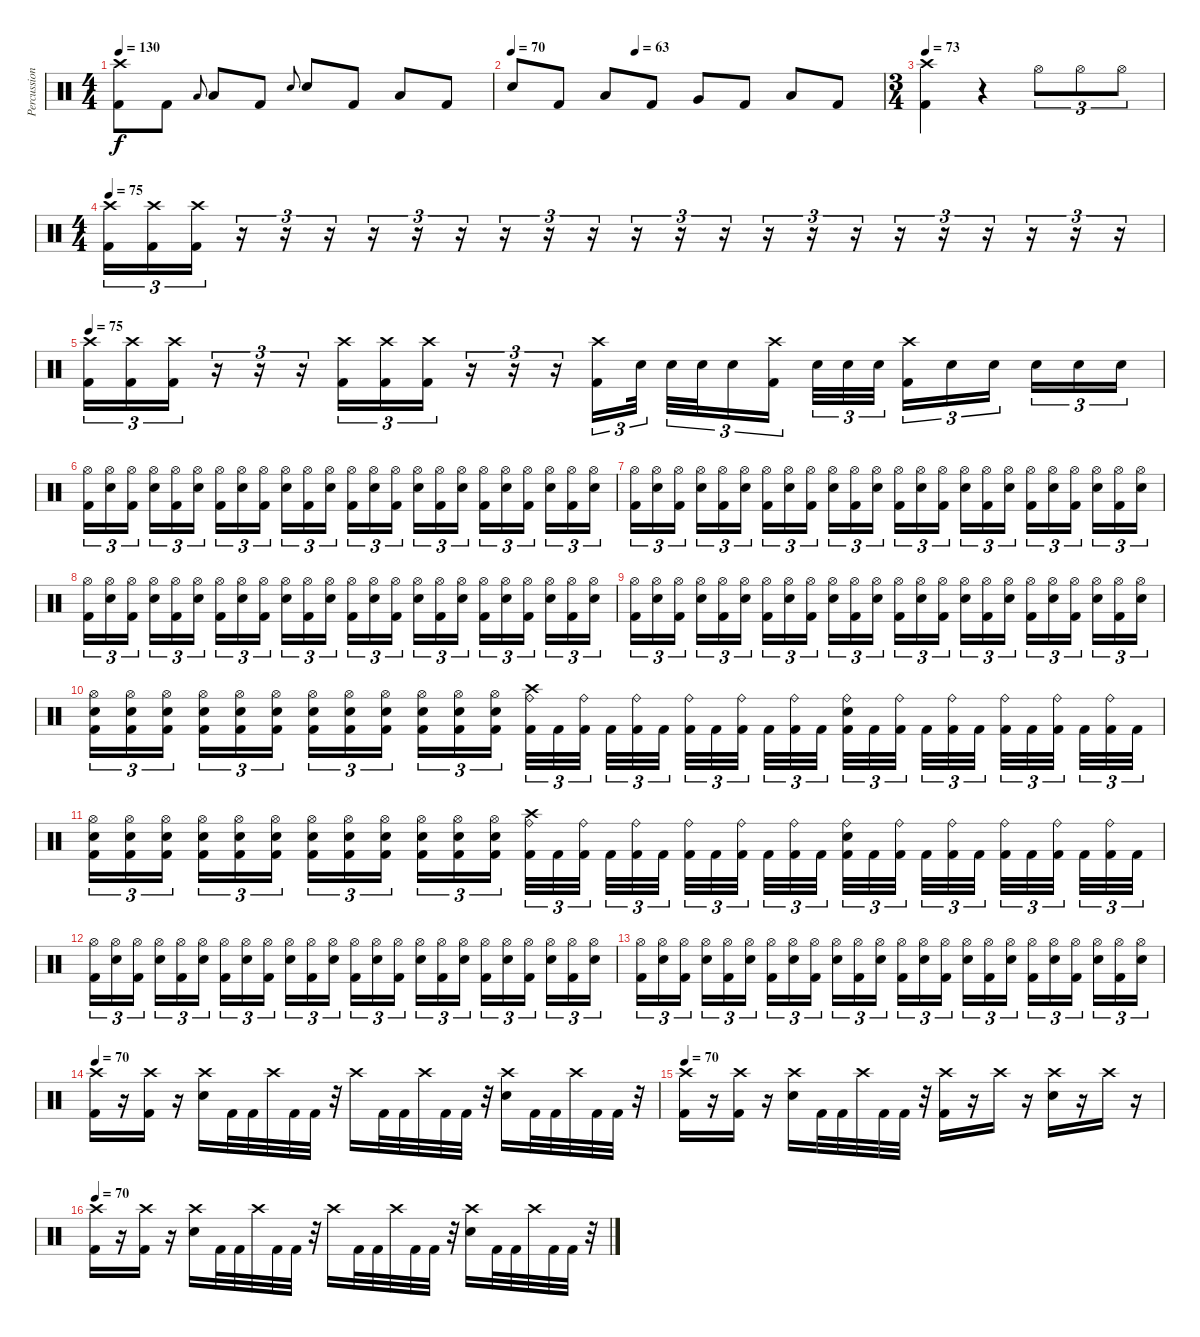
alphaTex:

\track ("Percussion" "Percussion") {instrument percussion}
\staff {score}
\articulation defaults
\ts (4 4)
\tempo 130
\clef neutral
\ks c
("Crash high (hit)" "Kick (hit) 2").8{dy f} "Kick (hit) 2".8 "Low Floor Tom (hit)".8{gr onbeat} "Low Floor Tom (hit)".8 "Kick (hit) 2".8 "Electric Snare (hit)".8{gr onbeat} "Electric Snare (hit)".8 "Kick (hit) 2".8 "Low Floor Tom (hit)".8 "Kick (hit) 2".8 |
\tempo 65
\tempo (63 0.3333333333333333)
\tempo (70)
"Electric Snare (hit)".8 "Kick (hit) 2".8 "Low Tom (hit)".8 "Kick (hit) 2".8 "Very Low Tom (hit)".8 "Kick (hit) 2".8 "Low Floor Tom (hit)".8 "Kick (hit) 2".8 |
\ts (3 4)
\tempo 73
("Crash high (hit)" "Kick (hit) 2").4 r.4 "Hi-Hat (open)".8{tu (3 2)} "Hi-Hat (open)".8{tu (3 2)} "Hi-Hat (open)".8{tu (3 2)} |
\ts (4 4)
\tempo 75
("Crash high (hit)" "Kick (hit) 2").16{tu (3 2)} ("Crash high (hit)" "Kick (hit) 2").16{tu (3 2)} ("Crash high (hit)" "Kick (hit) 2").16{tu (3 2)} r.16{tu (3 2)} r.16{tu (3 2)} r.16{tu (3 2)} r.16{tu (3 2)} r.16{tu (3 2)} r.16{tu (3 2)} r.16{tu (3 2)} r.16{tu (3 2)} r.16{tu (3 2)} r.16{tu (3 2)} r.16{tu (3 2)} r.16{tu (3 2)} r.16{tu (3 2)} r.16{tu (3 2)} r.16{tu (3 2)} r.16{tu (3 2)} r.16{tu (3 2)} r.16{tu (3 2)} r.16{tu (3 2)} r.16{tu (3 2)} r.16{tu (3 2)} |
\tempo 75
("Crash high (hit)" "Kick (hit) 2").16{tu (3 2)} ("Crash high (hit)" "Kick (hit) 2").16{tu (3 2)} ("Crash high (hit)" "Kick (hit) 2").16{tu (3 2)} r.16{tu (3 2)} r.16{tu (3 2)} r.16{tu (3 2)} ("Crash high (hit)" "Kick (hit) 2").16{tu (3 2)} ("Crash high (hit)" "Kick (hit) 2").16{tu (3 2)} ("Crash high (hit)" "Kick (hit) 2").16{tu (3 2)} r.16{tu (3 2)} r.16{tu (3 2)} r.16{tu (3 2)} ("Crash high (hit)" "Kick (hit) 2").16{tu (3 2)} "Electric Snare (hit)".32{tu (3 2) beam splitsecondary} "Electric Snare (hit)".32{tu (3 2)} "Electric Snare (hit)".32{tu (3 2)} "Electric Snare (hit)".16{tu (3 2)} ("Crash high (hit)" "Kick (hit) 2").16{tu (3 2) beam splitsecondary} "Electric Snare (hit)".32{tu (3 2)} "Electric Snare (hit)".32{tu (3 2)} "Electric Snare (hit)".32{tu (3 2)} ("Crash high (hit)" "Kick (hit) 2").16{tu (3 2)} "Electric Snare (hit)".16{tu (3 2)} "Electric Snare (hit)".16{tu (3 2) beam splitsecondary} "Electric Snare (hit)".16{tu (3 2)} "Electric Snare (hit)".16{tu (3 2)} "Electric Snare (hit)".16{tu (3 2)} |
("Hi-Hat (open)" "Kick (hit) 2").16{tu (3 2)} ("Hi-Hat (open)" "Electric Snare (hit)").16{tu (3 2)} ("Hi-Hat (open)" "Kick (hit) 2").16{tu (3 2) beam splitsecondary} ("Hi-Hat (open)" "Electric Snare (hit)").16{tu (3 2)} ("Hi-Hat (open)" "Kick (hit) 2").16{tu (3 2)} ("Hi-Hat (open)" "Electric Snare (hit)").16{tu (3 2)} ("Hi-Hat (open)" "Kick (hit) 2").16{tu (3 2)} ("Hi-Hat (open)" "Electric Snare (hit)").16{tu (3 2)} ("Hi-Hat (open)" "Kick (hit) 2").16{tu (3 2) beam splitsecondary} ("Hi-Hat (open)" "Electric Snare (hit)").16{tu (3 2)} ("Hi-Hat (open)" "Kick (hit) 2").16{tu (3 2)} ("Hi-Hat (open)" "Electric Snare (hit)").16{tu (3 2)} ("Hi-Hat (open)" "Kick (hit) 2").16{tu (3 2)} ("Hi-Hat (open)" "Electric Snare (hit)").16{tu (3 2)} ("Hi-Hat (open)" "Kick (hit) 2").16{tu (3 2) beam splitsecondary} ("Hi-Hat (open)" "Electric Snare (hit)").16{tu (3 2)} ("Hi-Hat (open)" "Kick (hit) 2").16{tu (3 2)} ("Hi-Hat (open)" "Electric Snare (hit)").16{tu (3 2)} ("Hi-Hat (open)" "Kick (hit) 2").16{tu (3 2)} ("Hi-Hat (open)" "Electric Snare (hit)").16{tu (3 2)} ("Hi-Hat (open)" "Kick (hit) 2").16{tu (3 2) beam splitsecondary} ("Hi-Hat (open)" "Electric Snare (hit)").16{tu (3 2)} ("Hi-Hat (open)" "Kick (hit) 2").16{tu (3 2)} ("Hi-Hat (open)" "Electric Snare (hit)").16{tu (3 2)} |
("Hi-Hat (open)" "Kick (hit) 2").16{tu (3 2)} ("Hi-Hat (open)" "Electric Snare (hit)").16{tu (3 2)} ("Hi-Hat (open)" "Kick (hit) 2").16{tu (3 2) beam splitsecondary} ("Hi-Hat (open)" "Electric Snare (hit)").16{tu (3 2)} ("Hi-Hat (open)" "Kick (hit) 2").16{tu (3 2)} ("Hi-Hat (open)" "Electric Snare (hit)").16{tu (3 2)} ("Hi-Hat (open)" "Kick (hit) 2").16{tu (3 2)} ("Hi-Hat (open)" "Electric Snare (hit)").16{tu (3 2)} ("Hi-Hat (open)" "Kick (hit) 2").16{tu (3 2) beam splitsecondary} ("Hi-Hat (open)" "Electric Snare (hit)").16{tu (3 2)} ("Hi-Hat (open)" "Kick (hit) 2").16{tu (3 2)} ("Hi-Hat (open)" "Electric Snare (hit)").16{tu (3 2)} ("Hi-Hat (open)" "Kick (hit) 2").16{tu (3 2)} ("Hi-Hat (open)" "Electric Snare (hit)").16{tu (3 2)} ("Hi-Hat (open)" "Kick (hit) 2").16{tu (3 2) beam splitsecondary} ("Hi-Hat (open)" "Electric Snare (hit)").16{tu (3 2)} ("Hi-Hat (open)" "Kick (hit) 2").16{tu (3 2)} ("Hi-Hat (open)" "Electric Snare (hit)").16{tu (3 2)} ("Hi-Hat (open)" "Kick (hit) 2").16{tu (3 2)} ("Hi-Hat (open)" "Electric Snare (hit)").16{tu (3 2)} ("Hi-Hat (open)" "Kick (hit) 2").16{tu (3 2) beam splitsecondary} ("Hi-Hat (open)" "Electric Snare (hit)").16{tu (3 2)} ("Hi-Hat (open)" "Kick (hit) 2").16{tu (3 2)} ("Hi-Hat (open)" "Electric Snare (hit)").16{tu (3 2)} |
("Hi-Hat (open)" "Kick (hit) 2").16{tu (3 2)} ("Hi-Hat (open)" "Electric Snare (hit)").16{tu (3 2)} ("Hi-Hat (open)" "Kick (hit) 2").16{tu (3 2) beam splitsecondary} ("Hi-Hat (open)" "Electric Snare (hit)").16{tu (3 2)} ("Hi-Hat (open)" "Kick (hit) 2").16{tu (3 2)} ("Hi-Hat (open)" "Electric Snare (hit)").16{tu (3 2)} ("Hi-Hat (open)" "Kick (hit) 2").16{tu (3 2)} ("Hi-Hat (open)" "Electric Snare (hit)").16{tu (3 2)} ("Hi-Hat (open)" "Kick (hit) 2").16{tu (3 2) beam splitsecondary} ("Hi-Hat (open)" "Electric Snare (hit)").16{tu (3 2)} ("Hi-Hat (open)" "Kick (hit) 2").16{tu (3 2)} ("Hi-Hat (open)" "Electric Snare (hit)").16{tu (3 2)} ("Hi-Hat (open)" "Kick (hit) 2").16{tu (3 2)} ("Hi-Hat (open)" "Electric Snare (hit)").16{tu (3 2)} ("Hi-Hat (open)" "Kick (hit) 2").16{tu (3 2) beam splitsecondary} ("Hi-Hat (open)" "Electric Snare (hit)").16{tu (3 2)} ("Hi-Hat (open)" "Kick (hit) 2").16{tu (3 2)} ("Hi-Hat (open)" "Electric Snare (hit)").16{tu (3 2)} ("Hi-Hat (open)" "Kick (hit) 2").16{tu (3 2)} ("Hi-Hat (open)" "Electric Snare (hit)").16{tu (3 2)} ("Hi-Hat (open)" "Kick (hit) 2").16{tu (3 2) beam splitsecondary} ("Hi-Hat (open)" "Electric Snare (hit)").16{tu (3 2)} ("Hi-Hat (open)" "Kick (hit) 2").16{tu (3 2)} ("Hi-Hat (open)" "Electric Snare (hit)").16{tu (3 2)} |
("Hi-Hat (open)" "Kick (hit) 2").16{tu (3 2)} ("Hi-Hat (open)" "Electric Snare (hit)").16{tu (3 2)} ("Hi-Hat (open)" "Kick (hit) 2").16{tu (3 2) beam splitsecondary} ("Hi-Hat (open)" "Electric Snare (hit)").16{tu (3 2)} ("Hi-Hat (open)" "Kick (hit) 2").16{tu (3 2)} ("Hi-Hat (open)" "Electric Snare (hit)").16{tu (3 2)} ("Hi-Hat (open)" "Kick (hit) 2").16{tu (3 2)} ("Hi-Hat (open)" "Electric Snare (hit)").16{tu (3 2)} ("Hi-Hat (open)" "Kick (hit) 2").16{tu (3 2) beam splitsecondary} ("Hi-Hat (open)" "Electric Snare (hit)").16{tu (3 2)} ("Hi-Hat (open)" "Kick (hit) 2").16{tu (3 2)} ("Hi-Hat (open)" "Electric Snare (hit)").16{tu (3 2)} ("Hi-Hat (open)" "Kick (hit) 2").16{tu (3 2)} ("Hi-Hat (open)" "Electric Snare (hit)").16{tu (3 2)} ("Hi-Hat (open)" "Kick (hit) 2").16{tu (3 2) beam splitsecondary} ("Hi-Hat (open)" "Electric Snare (hit)").16{tu (3 2)} ("Hi-Hat (open)" "Kick (hit) 2").16{tu (3 2)} ("Hi-Hat (open)" "Electric Snare (hit)").16{tu (3 2)} ("Hi-Hat (open)" "Kick (hit) 2").16{tu (3 2)} ("Hi-Hat (open)" "Electric Snare (hit)").16{tu (3 2)} ("Hi-Hat (open)" "Kick (hit) 2").16{tu (3 2) beam splitsecondary} ("Hi-Hat (open)" "Electric Snare (hit)").16{tu (3 2)} ("Hi-Hat (open)" "Kick (hit) 2").16{tu (3 2)} ("Hi-Hat (open)" "Electric Snare (hit)").16{tu (3 2)} |
("Hi-Hat (open)" "Electric Snare (hit)" "Kick (hit) 2").16{tu (3 2)} ("Hi-Hat (open)" "Electric Snare (hit)" "Kick (hit) 2").16{tu (3 2)} ("Hi-Hat (open)" "Electric Snare (hit)" "Kick (hit) 2").16{tu (3 2) beam splitsecondary} ("Hi-Hat (open)" "Electric Snare (hit)" "Kick (hit) 2").16{tu (3 2)} ("Hi-Hat (open)" "Electric Snare (hit)" "Kick (hit) 2").16{tu (3 2)} ("Hi-Hat (open)" "Electric Snare (hit)" "Kick (hit) 2").16{tu (3 2)} ("Hi-Hat (open)" "Electric Snare (hit)" "Kick (hit) 2").16{tu (3 2)} ("Hi-Hat (open)" "Electric Snare (hit)" "Kick (hit) 2").16{tu (3 2)} ("Hi-Hat (open)" "Electric Snare (hit)" "Kick (hit) 2").16{tu (3 2) beam splitsecondary} ("Hi-Hat (open)" "Electric Snare (hit)" "Kick (hit) 2").16{tu (3 2)} ("Hi-Hat (open)" "Electric Snare (hit)" "Kick (hit) 2").16{tu (3 2)} ("Hi-Hat (open)" "Electric Snare (hit)" "Kick (hit) 2").16{tu (3 2)} ("Ride (bell)" "Crash high (hit)" "Kick (hit) 2").32{tu (3 2)} "Kick (hit) 2".32{tu (3 2)} ("Ride (bell)" "Kick (hit) 2").32{tu (3 2) beam splitsecondary} "Kick (hit) 2".32{tu (3 2)} ("Ride (bell)" "Kick (hit) 2").32{tu (3 2)} "Kick (hit) 2".32{tu (3 2) beam splitsecondary} ("Ride (bell)" "Kick (hit) 2").32{tu (3 2)} "Kick (hit) 2".32{tu (3 2)} ("Ride (bell)" "Kick (hit) 2").32{tu (3 2) beam splitsecondary} "Kick (hit) 2".32{tu (3 2)} ("Ride (bell)" "Kick (hit) 2").32{tu (3 2)} "Kick (hit) 2".32{tu (3 2)} ("Ride (bell)" "Electric Snare (hit)" "Kick (hit) 2").32{tu (3 2)} "Kick (hit) 2".32{tu (3 2)} ("Ride (bell)" "Kick (hit) 2").32{tu (3 2) beam splitsecondary} "Kick (hit) 2".32{tu (3 2)} ("Ride (bell)" "Kick (hit) 2").32{tu (3 2)} "Kick (hit) 2".32{tu (3 2) beam splitsecondary} ("Ride (bell)" "Kick (hit) 2").32{tu (3 2)} "Kick (hit) 2".32{tu (3 2)} ("Ride (bell)" "Kick (hit) 2").32{tu (3 2) beam splitsecondary} "Kick (hit) 2".32{tu (3 2)} ("Ride (bell)" "Kick (hit) 2").32{tu (3 2)} "Kick (hit) 2".32{tu (3 2)} |
("Hi-Hat (open)" "Electric Snare (hit)" "Kick (hit) 2").16{tu (3 2)} ("Hi-Hat (open)" "Electric Snare (hit)" "Kick (hit) 2").16{tu (3 2)} ("Hi-Hat (open)" "Electric Snare (hit)" "Kick (hit) 2").16{tu (3 2) beam splitsecondary} ("Hi-Hat (open)" "Electric Snare (hit)" "Kick (hit) 2").16{tu (3 2)} ("Hi-Hat (open)" "Electric Snare (hit)" "Kick (hit) 2").16{tu (3 2)} ("Hi-Hat (open)" "Electric Snare (hit)" "Kick (hit) 2").16{tu (3 2)} ("Hi-Hat (open)" "Electric Snare (hit)" "Kick (hit) 2").16{tu (3 2)} ("Hi-Hat (open)" "Electric Snare (hit)" "Kick (hit) 2").16{tu (3 2)} ("Hi-Hat (open)" "Electric Snare (hit)" "Kick (hit) 2").16{tu (3 2) beam splitsecondary} ("Hi-Hat (open)" "Electric Snare (hit)" "Kick (hit) 2").16{tu (3 2)} ("Hi-Hat (open)" "Electric Snare (hit)" "Kick (hit) 2").16{tu (3 2)} ("Hi-Hat (open)" "Electric Snare (hit)" "Kick (hit) 2").16{tu (3 2)} ("Ride (bell)" "Crash high (hit)" "Kick (hit) 2").32{tu (3 2)} "Kick (hit) 2".32{tu (3 2)} ("Ride (bell)" "Kick (hit) 2").32{tu (3 2) beam splitsecondary} "Kick (hit) 2".32{tu (3 2)} ("Ride (bell)" "Kick (hit) 2").32{tu (3 2)} "Kick (hit) 2".32{tu (3 2) beam splitsecondary} ("Ride (bell)" "Kick (hit) 2").32{tu (3 2)} "Kick (hit) 2".32{tu (3 2)} ("Ride (bell)" "Kick (hit) 2").32{tu (3 2) beam splitsecondary} "Kick (hit) 2".32{tu (3 2)} ("Ride (bell)" "Kick (hit) 2").32{tu (3 2)} "Kick (hit) 2".32{tu (3 2)} ("Ride (bell)" "Electric Snare (hit)" "Kick (hit) 2").32{tu (3 2)} "Kick (hit) 2".32{tu (3 2)} ("Ride (bell)" "Kick (hit) 2").32{tu (3 2) beam splitsecondary} "Kick (hit) 2".32{tu (3 2)} ("Ride (bell)" "Kick (hit) 2").32{tu (3 2)} "Kick (hit) 2".32{tu (3 2) beam splitsecondary} ("Ride (bell)" "Kick (hit) 2").32{tu (3 2)} "Kick (hit) 2".32{tu (3 2)} ("Ride (bell)" "Kick (hit) 2").32{tu (3 2) beam splitsecondary} "Kick (hit) 2".32{tu (3 2)} ("Ride (bell)" "Kick (hit) 2").32{tu (3 2)} "Kick (hit) 2".32{tu (3 2)} |
("Hi-Hat (open)" "Kick (hit) 2").16{tu (3 2)} ("Hi-Hat (open)" "Electric Snare (hit)").16{tu (3 2)} ("Hi-Hat (open)" "Kick (hit) 2").16{tu (3 2) beam splitsecondary} ("Hi-Hat (open)" "Electric Snare (hit)").16{tu (3 2)} ("Hi-Hat (open)" "Kick (hit) 2").16{tu (3 2)} ("Hi-Hat (open)" "Electric Snare (hit)").16{tu (3 2)} ("Hi-Hat (open)" "Kick (hit) 2").16{tu (3 2)} ("Hi-Hat (open)" "Electric Snare (hit)").16{tu (3 2)} ("Hi-Hat (open)" "Kick (hit) 2").16{tu (3 2) beam splitsecondary} ("Hi-Hat (open)" "Electric Snare (hit)").16{tu (3 2)} ("Hi-Hat (open)" "Kick (hit) 2").16{tu (3 2)} ("Hi-Hat (open)" "Electric Snare (hit)").16{tu (3 2)} ("Hi-Hat (open)" "Kick (hit) 2").16{tu (3 2)} ("Hi-Hat (open)" "Electric Snare (hit)").16{tu (3 2)} ("Hi-Hat (open)" "Kick (hit) 2").16{tu (3 2) beam splitsecondary} ("Hi-Hat (open)" "Electric Snare (hit)").16{tu (3 2)} ("Hi-Hat (open)" "Kick (hit) 2").16{tu (3 2)} ("Hi-Hat (open)" "Electric Snare (hit)").16{tu (3 2)} ("Hi-Hat (open)" "Kick (hit) 2").16{tu (3 2)} ("Hi-Hat (open)" "Electric Snare (hit)").16{tu (3 2)} ("Hi-Hat (open)" "Kick (hit) 2").16{tu (3 2) beam splitsecondary} ("Hi-Hat (open)" "Electric Snare (hit)").16{tu (3 2)} ("Hi-Hat (open)" "Kick (hit) 2").16{tu (3 2)} ("Hi-Hat (open)" "Electric Snare (hit)").16{tu (3 2)} |
("Hi-Hat (open)" "Kick (hit) 2").16{tu (3 2)} ("Hi-Hat (open)" "Electric Snare (hit)").16{tu (3 2)} ("Hi-Hat (open)" "Kick (hit) 2").16{tu (3 2) beam splitsecondary} ("Hi-Hat (open)" "Electric Snare (hit)").16{tu (3 2)} ("Hi-Hat (open)" "Kick (hit) 2").16{tu (3 2)} ("Hi-Hat (open)" "Electric Snare (hit)").16{tu (3 2)} ("Hi-Hat (open)" "Kick (hit) 2").16{tu (3 2)} ("Hi-Hat (open)" "Electric Snare (hit)").16{tu (3 2)} ("Hi-Hat (open)" "Kick (hit) 2").16{tu (3 2) beam splitsecondary} ("Hi-Hat (open)" "Electric Snare (hit)").16{tu (3 2)} ("Hi-Hat (open)" "Kick (hit) 2").16{tu (3 2)} ("Hi-Hat (open)" "Electric Snare (hit)").16{tu (3 2)} ("Hi-Hat (open)" "Kick (hit) 2").16{tu (3 2)} ("Hi-Hat (open)" "Electric Snare (hit)").16{tu (3 2)} ("Hi-Hat (open)" "Kick (hit) 2").16{tu (3 2) beam splitsecondary} ("Hi-Hat (open)" "Electric Snare (hit)").16{tu (3 2)} ("Hi-Hat (open)" "Kick (hit) 2").16{tu (3 2)} ("Hi-Hat (open)" "Electric Snare (hit)").16{tu (3 2)} ("Hi-Hat (open)" "Kick (hit) 2").16{tu (3 2)} ("Hi-Hat (open)" "Electric Snare (hit)").16{tu (3 2)} ("Hi-Hat (open)" "Kick (hit) 2").16{tu (3 2) beam splitsecondary} ("Hi-Hat (open)" "Electric Snare (hit)").16{tu (3 2)} ("Hi-Hat (open)" "Kick (hit) 2").16{tu (3 2)} ("Hi-Hat (open)" "Electric Snare (hit)").16{tu (3 2)} |
\tempo 71
\tempo 70
("Crash high (hit)" "Kick (hit) 2").16 r.16 ("Crash high (hit)" "Kick (hit) 2").16 r.16 ("Crash high (hit)" "Electric Snare (hit)").16 "Kick (hit) 2".32 "Kick (hit) 2".32 "Crash high (hit)".32 "Kick (hit) 2".32 "Kick (hit) 2".32 r.32 "Crash high (hit)".16 "Kick (hit) 2".32 "Kick (hit) 2".32 "Crash high (hit)".32 "Kick (hit) 2".32 "Kick (hit) 2".32 r.32 ("Crash high (hit)" "Electric Snare (hit)").16 "Kick (hit) 2".32 "Kick (hit) 2".32 "Crash high (hit)".32 "Kick (hit) 2".32 "Kick (hit) 2".32 r.32 |
\tempo 70
("Crash high (hit)" "Kick (hit) 2").16 r.16 ("Crash high (hit)" "Kick (hit) 2").16 r.16 ("Crash high (hit)" "Electric Snare (hit)").16 "Kick (hit) 2".32 "Kick (hit) 2".32 "Crash high (hit)".32 "Kick (hit) 2".32 "Kick (hit) 2".32 r.32 ("Crash high (hit)" "Kick (hit) 2").16 r.16 "Crash high (hit)".16 r.16 ("Crash high (hit)" "Electric Snare (hit)").16 r.16 "Crash high (hit)".16 r.16 |
\tempo 70
("Crash high (hit)" "Kick (hit) 2").16 r.16 ("Crash high (hit)" "Kick (hit) 2").16 r.16 ("Crash high (hit)" "Electric Snare (hit)").16 "Kick (hit) 2".32 "Kick (hit) 2".32 "Crash high (hit)".32 "Kick (hit) 2".32 "Kick (hit) 2".32 r.32 "Crash high (hit)".16 "Kick (hit) 2".32 "Kick (hit) 2".32 "Crash high (hit)".32 "Kick (hit) 2".32 "Kick (hit) 2".32 r.32 ("Crash high (hit)" "Electric Snare (hit)").16 "Kick (hit) 2".32 "Kick (hit) 2".32 "Crash high (hit)".32 "Kick (hit) 2".32 "Kick (hit) 2".32 r.32
